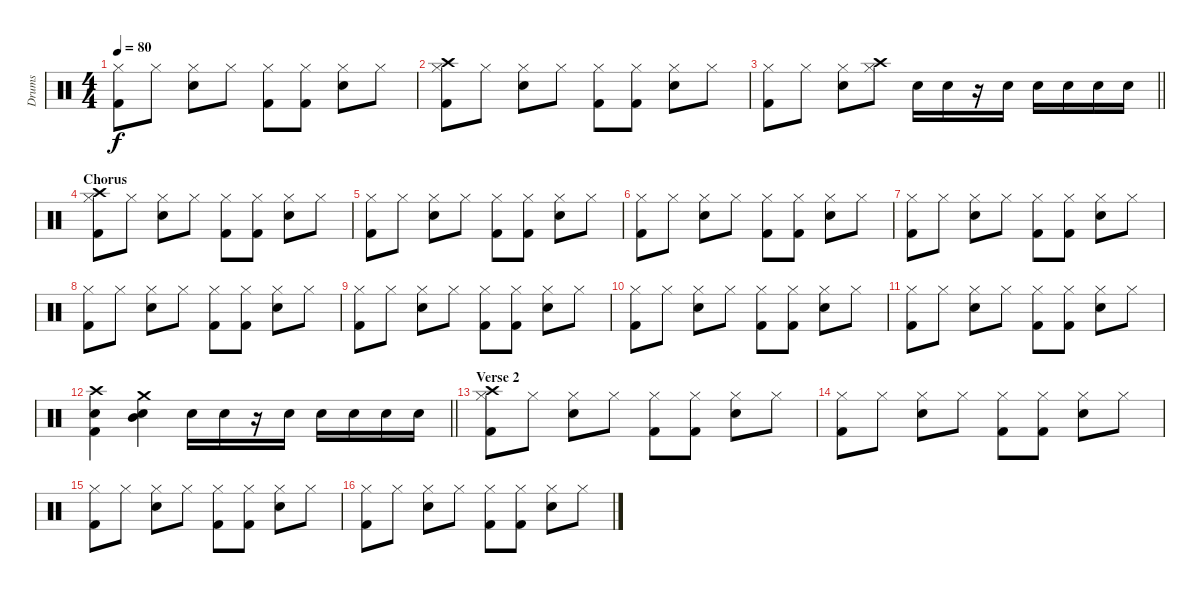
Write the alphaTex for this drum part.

\track ("Drums" "Drums") {instrument percussion}
\staff {score}
\articulation defaults
\ts (4 4)
\tempo 80
\clef neutral
\ks c
("Hi-Hat (closed)" "Kick (hit) 2").8{dy f} "Hi-Hat (closed)".8 ("Hi-Hat (closed)" "Snare (hit) 2").8 "Hi-Hat (closed)".8 ("Hi-Hat (closed)" "Kick (hit) 2").8 ("Hi-Hat (closed)" "Kick (hit) 2").8 ("Hi-Hat (closed)" "Snare (hit) 2").8 "Hi-Hat (closed)".8 |
("Hi-Hat (closed)" "Crash high (hit)" "Kick (hit) 2").8 "Hi-Hat (closed)".8 ("Hi-Hat (closed)" "Snare (hit) 2").8 "Hi-Hat (closed)".8 ("Hi-Hat (closed)" "Kick (hit) 2").8 ("Hi-Hat (closed)" "Kick (hit) 2").8 ("Hi-Hat (closed)" "Snare (hit) 2").8 "Hi-Hat (closed)".8 |
\barLineRight lightlight
("Hi-Hat (closed)" "Kick (hit) 2").8 "Hi-Hat (closed)".8 ("Hi-Hat (closed)" "Snare (hit) 2").8 ("Hi-Hat (closed)" "Crash high (hit)").8 "Snare (hit) 2".16 "Snare (hit) 2".16 r.16 "Snare (hit) 2".16 "Snare (hit) 2".16 "Snare (hit) 2".16 "Snare (hit) 2".16 "Snare (hit) 2".16 |
\section ("" "Chorus")
("Hi-Hat (closed)" "Crash high (hit)" "Kick (hit) 2").8 "Hi-Hat (closed)".8 ("Hi-Hat (closed)" "Snare (hit) 2").8 "Hi-Hat (closed)".8 ("Hi-Hat (closed)" "Kick (hit) 2").8 ("Hi-Hat (closed)" "Kick (hit) 2").8 ("Hi-Hat (closed)" "Snare (hit) 2").8 "Hi-Hat (closed)".8 |
("Hi-Hat (closed)" "Kick (hit) 2").8 "Hi-Hat (closed)".8 ("Hi-Hat (closed)" "Snare (hit) 2").8 "Hi-Hat (closed)".8 ("Hi-Hat (closed)" "Kick (hit) 2").8 ("Hi-Hat (closed)" "Kick (hit) 2").8 ("Hi-Hat (closed)" "Snare (hit) 2").8 "Hi-Hat (closed)".8 |
("Hi-Hat (closed)" "Kick (hit) 2").8 "Hi-Hat (closed)".8 ("Hi-Hat (closed)" "Snare (hit) 2").8 "Hi-Hat (closed)".8 ("Hi-Hat (closed)" "Kick (hit) 2").8 ("Hi-Hat (closed)" "Kick (hit) 2").8 ("Hi-Hat (closed)" "Snare (hit) 2").8 "Hi-Hat (closed)".8 |
("Hi-Hat (closed)" "Kick (hit) 2").8 "Hi-Hat (closed)".8 ("Hi-Hat (closed)" "Snare (hit) 2").8 "Hi-Hat (closed)".8 ("Hi-Hat (closed)" "Kick (hit) 2").8 ("Hi-Hat (closed)" "Kick (hit) 2").8 ("Hi-Hat (closed)" "Snare (hit) 2").8 "Hi-Hat (closed)".8 |
("Hi-Hat (closed)" "Kick (hit) 2").8 "Hi-Hat (closed)".8 ("Hi-Hat (closed)" "Snare (hit) 2").8 "Hi-Hat (closed)".8 ("Hi-Hat (closed)" "Kick (hit) 2").8 ("Hi-Hat (closed)" "Kick (hit) 2").8 ("Hi-Hat (closed)" "Snare (hit) 2").8 "Hi-Hat (closed)".8 |
("Hi-Hat (closed)" "Kick (hit) 2").8 "Hi-Hat (closed)".8 ("Hi-Hat (closed)" "Snare (hit) 2").8 "Hi-Hat (closed)".8 ("Hi-Hat (closed)" "Kick (hit) 2").8 ("Hi-Hat (closed)" "Kick (hit) 2").8 ("Hi-Hat (closed)" "Snare (hit) 2").8 "Hi-Hat (closed)".8 |
("Hi-Hat (closed)" "Kick (hit) 2").8 "Hi-Hat (closed)".8 ("Hi-Hat (closed)" "Snare (hit) 2").8 "Hi-Hat (closed)".8 ("Hi-Hat (closed)" "Kick (hit) 2").8 ("Hi-Hat (closed)" "Kick (hit) 2").8 ("Hi-Hat (closed)" "Snare (hit) 2").8 "Hi-Hat (closed)".8 |
("Hi-Hat (closed)" "Kick (hit) 2").8 "Hi-Hat (closed)".8 ("Hi-Hat (closed)" "Snare (hit) 2").8 "Hi-Hat (closed)".8 ("Hi-Hat (closed)" "Kick (hit) 2").8 ("Hi-Hat (closed)" "Kick (hit) 2").8 ("Hi-Hat (closed)" "Snare (hit) 2").8 "Hi-Hat (closed)".8 |
\barLineRight lightlight
("Crash high (hit)" "Kick (hit) 2" "Snare (hit) 2").4 ("Crash medium (hit)" "Snare (hit) 2" "Mid Tom (hit)").4 "Snare (hit) 2".16 "Snare (hit) 2".16 r.16 "Snare (hit) 2".16 "Snare (hit) 2".16 "Snare (hit) 2".16 "Snare (hit) 2".16 "Snare (hit) 2".16 |
\section ("" "Verse 2")
("Hi-Hat (closed)" "Crash high (hit)" "Kick (hit) 2").8 "Hi-Hat (closed)".8 ("Hi-Hat (closed)" "Snare (hit) 2").8 "Hi-Hat (closed)".8 ("Hi-Hat (closed)" "Kick (hit) 2").8 ("Hi-Hat (closed)" "Kick (hit) 2").8 ("Hi-Hat (closed)" "Snare (hit) 2").8 "Hi-Hat (closed)".8 |
("Hi-Hat (closed)" "Kick (hit) 2").8 "Hi-Hat (closed)".8 ("Hi-Hat (closed)" "Snare (hit) 2").8 "Hi-Hat (closed)".8 ("Hi-Hat (closed)" "Kick (hit) 2").8 ("Hi-Hat (closed)" "Kick (hit) 2").8 ("Hi-Hat (closed)" "Snare (hit) 2").8 "Hi-Hat (closed)".8 |
("Hi-Hat (closed)" "Kick (hit) 2").8 "Hi-Hat (closed)".8 ("Hi-Hat (closed)" "Snare (hit) 2").8 "Hi-Hat (closed)".8 ("Hi-Hat (closed)" "Kick (hit) 2").8 ("Hi-Hat (closed)" "Kick (hit) 2").8 ("Hi-Hat (closed)" "Snare (hit) 2").8 "Hi-Hat (closed)".8 |
("Hi-Hat (closed)" "Kick (hit) 2").8 "Hi-Hat (closed)".8 ("Hi-Hat (closed)" "Snare (hit) 2").8 "Hi-Hat (closed)".8 ("Hi-Hat (closed)" "Kick (hit) 2").8 ("Hi-Hat (closed)" "Kick (hit) 2").8 ("Hi-Hat (closed)" "Snare (hit) 2").8 "Hi-Hat (closed)".8
